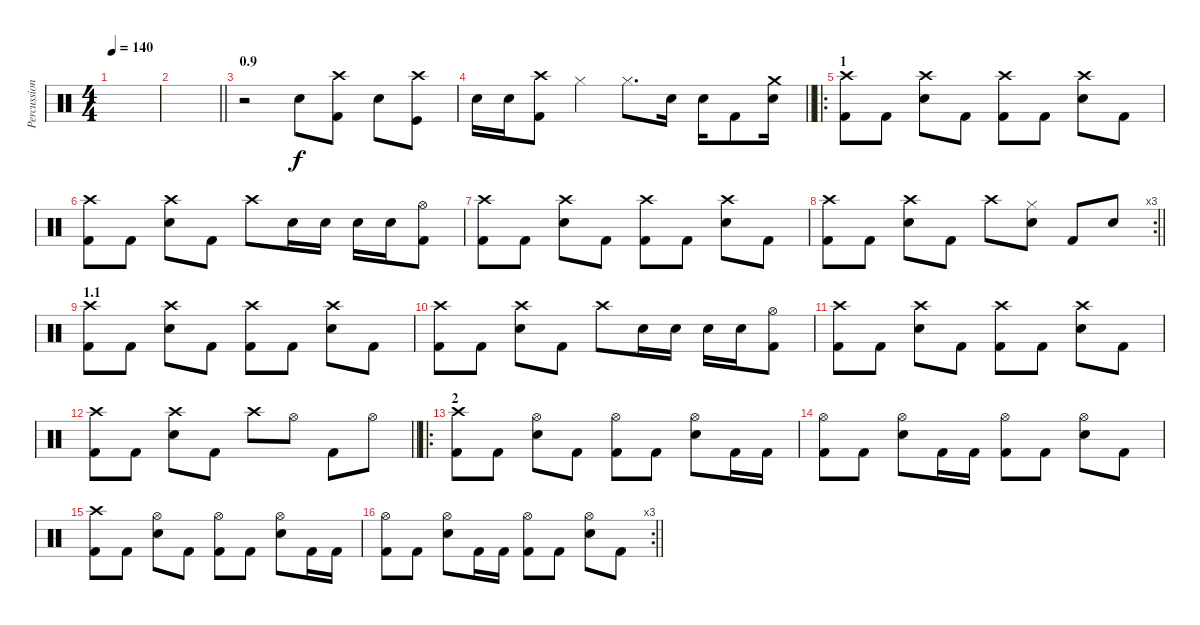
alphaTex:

\track ("Percussion" "Percussion") {instrument percussion}
\staff {score}
\articulation defaults
\ts (4 4)
\tempo 140
\clef neutral
\ks c
|
\barLineRight lightlight
|
\section ("" "0.9")
r.2 "Snare (hit) 2".8 ("Kick (hit) 2" "Crash high (hit)").8 "Snare (hit) 2".8 ("Kick (hit)" "Crash high (hit)").8 |
\barLineRight lightlight "Snare (hit) 2".16 "Snare (hit) 2".16
("Kick (hit) 2" "Crash high (hit)").8 "Hi-Hat (closed)".4 "Hi-Hat (closed)".8{d} "Snare (hit) 2".16 "Snare (hit) 2".16 "Kick (hit) 2".8 ("Snare (hit) 2" "Crash medium (hit)").16 |
\ro
\section ("" "1")
("Kick (hit) 2" "Crash high (hit)").8 "Kick (hit) 2".8 ("Snare (hit) 2" "Crash high (hit)").8 "Kick (hit) 2".8 ("Kick (hit) 2" "Crash high (hit)").8 "Kick (hit) 2".8 ("Snare (hit) 2" "Crash high (hit)").8 "Kick (hit) 2".8 |
("Kick (hit) 2" "Crash high (hit)").8 "Kick (hit) 2".8 ("Snare (hit) 2" "Crash high (hit)").8 "Kick (hit) 2".8 "Crash high (hit)".8 "Snare (hit) 2".16 "Snare (hit) 2".16 "Snare (hit) 2".16 "Snare (hit) 2".16 ("Kick (hit) 2" "Hi-Hat (open)").8 |
("Kick (hit) 2" "Crash high (hit)").8 "Kick (hit) 2".8 ("Snare (hit) 2" "Crash high (hit)").8 "Kick (hit) 2".8 ("Kick (hit) 2" "Crash high (hit)").8 "Kick (hit) 2".8 ("Snare (hit) 2" "Crash high (hit)").8 "Kick (hit) 2".8 |
\rc 3
\barLineRight lightlight
("Kick (hit) 2" "Crash high (hit)").8 "Kick (hit) 2".8 ("Snare (hit) 2" "Crash high (hit)").8 "Kick (hit) 2".8 "Crash high (hit)".8 ("Snare (hit) 2" "Hi-Hat (closed)").8 "Kick (hit) 2".8 "Snare (hit) 2".8 |
\section ("" "1.1")
("Kick (hit) 2" "Crash high (hit)").8 "Kick (hit) 2".8 ("Snare (hit) 2" "Crash high (hit)").8 "Kick (hit) 2".8 ("Kick (hit) 2" "Crash high (hit)").8 "Kick (hit) 2".8 ("Snare (hit) 2" "Crash high (hit)").8 "Kick (hit) 2".8 |
("Kick (hit) 2" "Crash high (hit)").8 "Kick (hit) 2".8 ("Snare (hit) 2" "Crash high (hit)").8 "Kick (hit) 2".8 "Crash high (hit)".8 "Snare (hit) 2".16 "Snare (hit) 2".16 "Snare (hit) 2".16 "Snare (hit) 2".16 ("Kick (hit) 2" "Hi-Hat (open)").8 |
("Kick (hit) 2" "Crash high (hit)").8 "Kick (hit) 2".8 ("Snare (hit) 2" "Crash high (hit)").8 "Kick (hit) 2".8 ("Kick (hit) 2" "Crash high (hit)").8 "Kick (hit) 2".8 ("Snare (hit) 2" "Crash high (hit)").8 "Kick (hit) 2".8 |
\barLineRight lightlight
("Kick (hit) 2" "Crash high (hit)").8 "Kick (hit) 2".8 ("Snare (hit) 2" "Crash high (hit)").8 "Kick (hit) 2".8 "Crash high (hit)".8 "Hi-Hat (open)".8 "Kick (hit) 2".8 "Hi-Hat (open)".8 |
\ro
\section ("" "2")
("Kick (hit) 2" "Crash high (hit)").8 "Kick (hit) 2".8 ("Snare (hit) 2" "Hi-Hat (open)").8 "Kick (hit) 2".8 ("Kick (hit) 2" "Hi-Hat (open)").8 "Kick (hit) 2".8 ("Snare (hit) 2" "Hi-Hat (open)").8 "Kick (hit) 2".16 "Kick (hit) 2".16 |
("Kick (hit) 2" "Hi-Hat (open)").8 "Kick (hit) 2".8 ("Snare (hit) 2" "Hi-Hat (open)").8 "Kick (hit) 2".16 "Kick (hit) 2".16 ("Kick (hit) 2" "Hi-Hat (open)").8 "Kick (hit) 2".8 ("Snare (hit) 2" "Hi-Hat (open)").8 "Kick (hit) 2".8 |
("Kick (hit) 2" "Crash high (hit)").8 "Kick (hit) 2".8 ("Snare (hit) 2" "Hi-Hat (open)").8 "Kick (hit) 2".8 ("Kick (hit) 2" "Hi-Hat (open)").8 "Kick (hit) 2".8 ("Snare (hit) 2" "Hi-Hat (open)").8 "Kick (hit) 2".16 "Kick (hit) 2".16 |
\rc 3
\barLineRight lightlight
("Kick (hit) 2" "Hi-Hat (open)").8 "Kick (hit) 2".8 ("Snare (hit) 2" "Hi-Hat (open)").8 "Kick (hit) 2".16 "Kick (hit) 2".16 ("Kick (hit) 2" "Hi-Hat (open)").8 "Kick (hit) 2".8 ("Snare (hit) 2" "Hi-Hat (open)").8 "Kick (hit) 2".8
